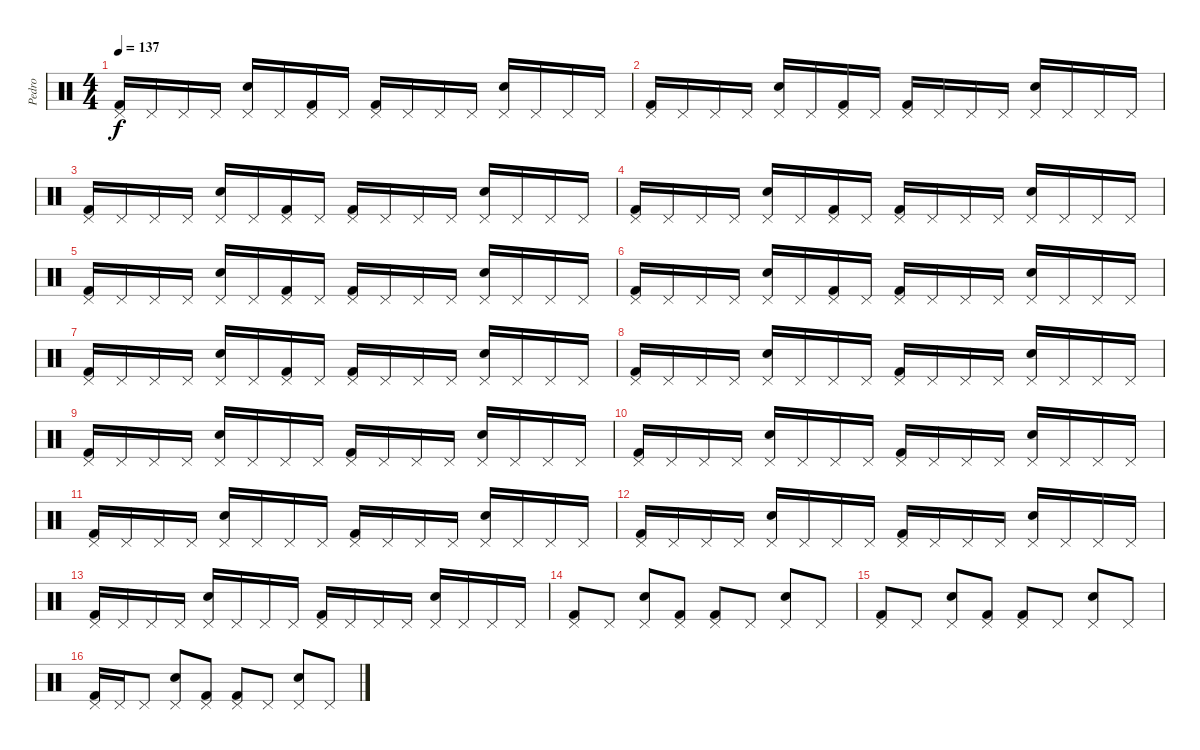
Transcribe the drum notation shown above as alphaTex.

\track ("Pedro" "Pedro") {instrument percussion}
\staff {score}
\articulation defaults
\ts (4 4)
\tempo 137
\clef neutral
\ks c
("Pedal Hi-Hat (hit)" "Kick (hit) 2").16{dy f} "Pedal Hi-Hat (hit)".16 "Pedal Hi-Hat (hit)".16 "Pedal Hi-Hat (hit)".16 ("Pedal Hi-Hat (hit)" "Snare (hit) 2").16 "Pedal Hi-Hat (hit)".16 ("Pedal Hi-Hat (hit)" "Kick (hit) 2").16 "Pedal Hi-Hat (hit)".16 ("Pedal Hi-Hat (hit)" "Kick (hit) 2").16 "Pedal Hi-Hat (hit)".16 "Pedal Hi-Hat (hit)".16 "Pedal Hi-Hat (hit)".16 ("Pedal Hi-Hat (hit)" "Snare (hit) 2").16 "Pedal Hi-Hat (hit)".16 "Pedal Hi-Hat (hit)".16 "Pedal Hi-Hat (hit)".16 |
("Pedal Hi-Hat (hit)" "Kick (hit) 2").16 "Pedal Hi-Hat (hit)".16 "Pedal Hi-Hat (hit)".16 "Pedal Hi-Hat (hit)".16 ("Pedal Hi-Hat (hit)" "Snare (hit) 2").16 "Pedal Hi-Hat (hit)".16 ("Pedal Hi-Hat (hit)" "Kick (hit) 2").16 "Pedal Hi-Hat (hit)".16 ("Pedal Hi-Hat (hit)" "Kick (hit) 2").16 "Pedal Hi-Hat (hit)".16 "Pedal Hi-Hat (hit)".16 "Pedal Hi-Hat (hit)".16 ("Pedal Hi-Hat (hit)" "Snare (hit) 2").16 "Pedal Hi-Hat (hit)".16 "Pedal Hi-Hat (hit)".16 "Pedal Hi-Hat (hit)".16 |
("Pedal Hi-Hat (hit)" "Kick (hit) 2").16 "Pedal Hi-Hat (hit)".16 "Pedal Hi-Hat (hit)".16 "Pedal Hi-Hat (hit)".16 ("Pedal Hi-Hat (hit)" "Snare (hit) 2").16 "Pedal Hi-Hat (hit)".16 ("Pedal Hi-Hat (hit)" "Kick (hit) 2").16 "Pedal Hi-Hat (hit)".16 ("Pedal Hi-Hat (hit)" "Kick (hit) 2").16 "Pedal Hi-Hat (hit)".16 "Pedal Hi-Hat (hit)".16 "Pedal Hi-Hat (hit)".16 ("Pedal Hi-Hat (hit)" "Snare (hit) 2").16 "Pedal Hi-Hat (hit)".16 "Pedal Hi-Hat (hit)".16 "Pedal Hi-Hat (hit)".16 |
("Pedal Hi-Hat (hit)" "Kick (hit) 2").16 "Pedal Hi-Hat (hit)".16 "Pedal Hi-Hat (hit)".16 "Pedal Hi-Hat (hit)".16 ("Pedal Hi-Hat (hit)" "Snare (hit) 2").16 "Pedal Hi-Hat (hit)".16 ("Pedal Hi-Hat (hit)" "Kick (hit) 2").16 "Pedal Hi-Hat (hit)".16 ("Pedal Hi-Hat (hit)" "Kick (hit) 2").16 "Pedal Hi-Hat (hit)".16 "Pedal Hi-Hat (hit)".16 "Pedal Hi-Hat (hit)".16 ("Pedal Hi-Hat (hit)" "Snare (hit) 2").16 "Pedal Hi-Hat (hit)".16 "Pedal Hi-Hat (hit)".16 "Pedal Hi-Hat (hit)".16 |
("Pedal Hi-Hat (hit)" "Kick (hit) 2").16 "Pedal Hi-Hat (hit)".16 "Pedal Hi-Hat (hit)".16 "Pedal Hi-Hat (hit)".16 ("Pedal Hi-Hat (hit)" "Snare (hit) 2").16 "Pedal Hi-Hat (hit)".16 ("Pedal Hi-Hat (hit)" "Kick (hit) 2").16 "Pedal Hi-Hat (hit)".16 ("Pedal Hi-Hat (hit)" "Kick (hit) 2").16 "Pedal Hi-Hat (hit)".16 "Pedal Hi-Hat (hit)".16 "Pedal Hi-Hat (hit)".16 ("Pedal Hi-Hat (hit)" "Snare (hit) 2").16 "Pedal Hi-Hat (hit)".16 "Pedal Hi-Hat (hit)".16 "Pedal Hi-Hat (hit)".16 |
("Pedal Hi-Hat (hit)" "Kick (hit) 2").16 "Pedal Hi-Hat (hit)".16 "Pedal Hi-Hat (hit)".16 "Pedal Hi-Hat (hit)".16 ("Pedal Hi-Hat (hit)" "Snare (hit) 2").16 "Pedal Hi-Hat (hit)".16 ("Pedal Hi-Hat (hit)" "Kick (hit) 2").16 "Pedal Hi-Hat (hit)".16 ("Pedal Hi-Hat (hit)" "Kick (hit) 2").16 "Pedal Hi-Hat (hit)".16 "Pedal Hi-Hat (hit)".16 "Pedal Hi-Hat (hit)".16 ("Pedal Hi-Hat (hit)" "Snare (hit) 2").16 "Pedal Hi-Hat (hit)".16 "Pedal Hi-Hat (hit)".16 "Pedal Hi-Hat (hit)".16 |
("Pedal Hi-Hat (hit)" "Kick (hit) 2").16 "Pedal Hi-Hat (hit)".16 "Pedal Hi-Hat (hit)".16 "Pedal Hi-Hat (hit)".16 ("Pedal Hi-Hat (hit)" "Snare (hit) 2").16 "Pedal Hi-Hat (hit)".16 ("Pedal Hi-Hat (hit)" "Kick (hit) 2").16 "Pedal Hi-Hat (hit)".16 ("Pedal Hi-Hat (hit)" "Kick (hit) 2").16 "Pedal Hi-Hat (hit)".16 "Pedal Hi-Hat (hit)".16 "Pedal Hi-Hat (hit)".16 ("Pedal Hi-Hat (hit)" "Snare (hit) 2").16 "Pedal Hi-Hat (hit)".16 "Pedal Hi-Hat (hit)".16 "Pedal Hi-Hat (hit)".16 |
("Pedal Hi-Hat (hit)" "Kick (hit) 2").16 "Pedal Hi-Hat (hit)".16 "Pedal Hi-Hat (hit)".16 "Pedal Hi-Hat (hit)".16 ("Pedal Hi-Hat (hit)" "Snare (hit) 2").16 "Pedal Hi-Hat (hit)".16 "Pedal Hi-Hat (hit)".16 "Pedal Hi-Hat (hit)".16 ("Pedal Hi-Hat (hit)" "Kick (hit) 2").16 "Pedal Hi-Hat (hit)".16 "Pedal Hi-Hat (hit)".16 "Pedal Hi-Hat (hit)".16 ("Pedal Hi-Hat (hit)" "Snare (hit) 2").16 "Pedal Hi-Hat (hit)".16 "Pedal Hi-Hat (hit)".16 "Pedal Hi-Hat (hit)".16 |
("Pedal Hi-Hat (hit)" "Kick (hit) 2").16 "Pedal Hi-Hat (hit)".16 "Pedal Hi-Hat (hit)".16 "Pedal Hi-Hat (hit)".16 ("Pedal Hi-Hat (hit)" "Snare (hit) 2").16 "Pedal Hi-Hat (hit)".16 "Pedal Hi-Hat (hit)".16 "Pedal Hi-Hat (hit)".16 ("Pedal Hi-Hat (hit)" "Kick (hit) 2").16 "Pedal Hi-Hat (hit)".16 "Pedal Hi-Hat (hit)".16 "Pedal Hi-Hat (hit)".16 ("Pedal Hi-Hat (hit)" "Snare (hit) 2").16 "Pedal Hi-Hat (hit)".16 "Pedal Hi-Hat (hit)".16 "Pedal Hi-Hat (hit)".16 |
("Pedal Hi-Hat (hit)" "Kick (hit) 2").16 "Pedal Hi-Hat (hit)".16 "Pedal Hi-Hat (hit)".16 "Pedal Hi-Hat (hit)".16 ("Pedal Hi-Hat (hit)" "Snare (hit) 2").16 "Pedal Hi-Hat (hit)".16 "Pedal Hi-Hat (hit)".16 "Pedal Hi-Hat (hit)".16 ("Pedal Hi-Hat (hit)" "Kick (hit) 2").16 "Pedal Hi-Hat (hit)".16 "Pedal Hi-Hat (hit)".16 "Pedal Hi-Hat (hit)".16 ("Pedal Hi-Hat (hit)" "Snare (hit) 2").16 "Pedal Hi-Hat (hit)".16 "Pedal Hi-Hat (hit)".16 "Pedal Hi-Hat (hit)".16 |
("Pedal Hi-Hat (hit)" "Kick (hit) 2").16 "Pedal Hi-Hat (hit)".16 "Pedal Hi-Hat (hit)".16 "Pedal Hi-Hat (hit)".16 ("Pedal Hi-Hat (hit)" "Snare (hit) 2").16 "Pedal Hi-Hat (hit)".16 "Pedal Hi-Hat (hit)".16 "Pedal Hi-Hat (hit)".16 ("Pedal Hi-Hat (hit)" "Kick (hit) 2").16 "Pedal Hi-Hat (hit)".16 "Pedal Hi-Hat (hit)".16 "Pedal Hi-Hat (hit)".16 ("Pedal Hi-Hat (hit)" "Snare (hit) 2").16 "Pedal Hi-Hat (hit)".16 "Pedal Hi-Hat (hit)".16 "Pedal Hi-Hat (hit)".16 |
("Pedal Hi-Hat (hit)" "Kick (hit) 2").16 "Pedal Hi-Hat (hit)".16 "Pedal Hi-Hat (hit)".16 "Pedal Hi-Hat (hit)".16 ("Pedal Hi-Hat (hit)" "Snare (hit) 2").16 "Pedal Hi-Hat (hit)".16 "Pedal Hi-Hat (hit)".16 "Pedal Hi-Hat (hit)".16 ("Pedal Hi-Hat (hit)" "Kick (hit) 2").16 "Pedal Hi-Hat (hit)".16 "Pedal Hi-Hat (hit)".16 "Pedal Hi-Hat (hit)".16 ("Pedal Hi-Hat (hit)" "Snare (hit) 2").16 "Pedal Hi-Hat (hit)".16 "Pedal Hi-Hat (hit)".16 "Pedal Hi-Hat (hit)".16 |
("Pedal Hi-Hat (hit)" "Kick (hit) 2").16 "Pedal Hi-Hat (hit)".16 "Pedal Hi-Hat (hit)".16 "Pedal Hi-Hat (hit)".16 ("Pedal Hi-Hat (hit)" "Snare (hit) 2").16 "Pedal Hi-Hat (hit)".16 "Pedal Hi-Hat (hit)".16 "Pedal Hi-Hat (hit)".16 ("Pedal Hi-Hat (hit)" "Kick (hit) 2").16 "Pedal Hi-Hat (hit)".16 "Pedal Hi-Hat (hit)".16 "Pedal Hi-Hat (hit)".16 ("Pedal Hi-Hat (hit)" "Snare (hit) 2").16 "Pedal Hi-Hat (hit)".16 "Pedal Hi-Hat (hit)".16 "Pedal Hi-Hat (hit)".16 |
("Pedal Hi-Hat (hit)" "Kick (hit) 2").8 "Pedal Hi-Hat (hit)".8 ("Pedal Hi-Hat (hit)" "Snare (hit) 2").8 ("Pedal Hi-Hat (hit)" "Kick (hit) 2").8 ("Pedal Hi-Hat (hit)" "Kick (hit) 2").8 "Pedal Hi-Hat (hit)".8 ("Pedal Hi-Hat (hit)" "Snare (hit) 2").8 "Pedal Hi-Hat (hit)".8 |
("Pedal Hi-Hat (hit)" "Kick (hit) 2").8 "Pedal Hi-Hat (hit)".8 ("Pedal Hi-Hat (hit)" "Snare (hit) 2").8 ("Pedal Hi-Hat (hit)" "Kick (hit) 2").8 ("Pedal Hi-Hat (hit)" "Kick (hit) 2").8 "Pedal Hi-Hat (hit)".8 ("Pedal Hi-Hat (hit)" "Snare (hit) 2").8 "Pedal Hi-Hat (hit)".8 |
("Pedal Hi-Hat (hit)" "Kick (hit) 2").16 "Pedal Hi-Hat (hit)".16 "Pedal Hi-Hat (hit)".8 ("Pedal Hi-Hat (hit)" "Snare (hit) 2").8 ("Pedal Hi-Hat (hit)" "Kick (hit) 2").8 ("Pedal Hi-Hat (hit)" "Kick (hit) 2").8 "Pedal Hi-Hat (hit)".8 ("Pedal Hi-Hat (hit)" "Snare (hit) 2").8 "Pedal Hi-Hat (hit)".8
